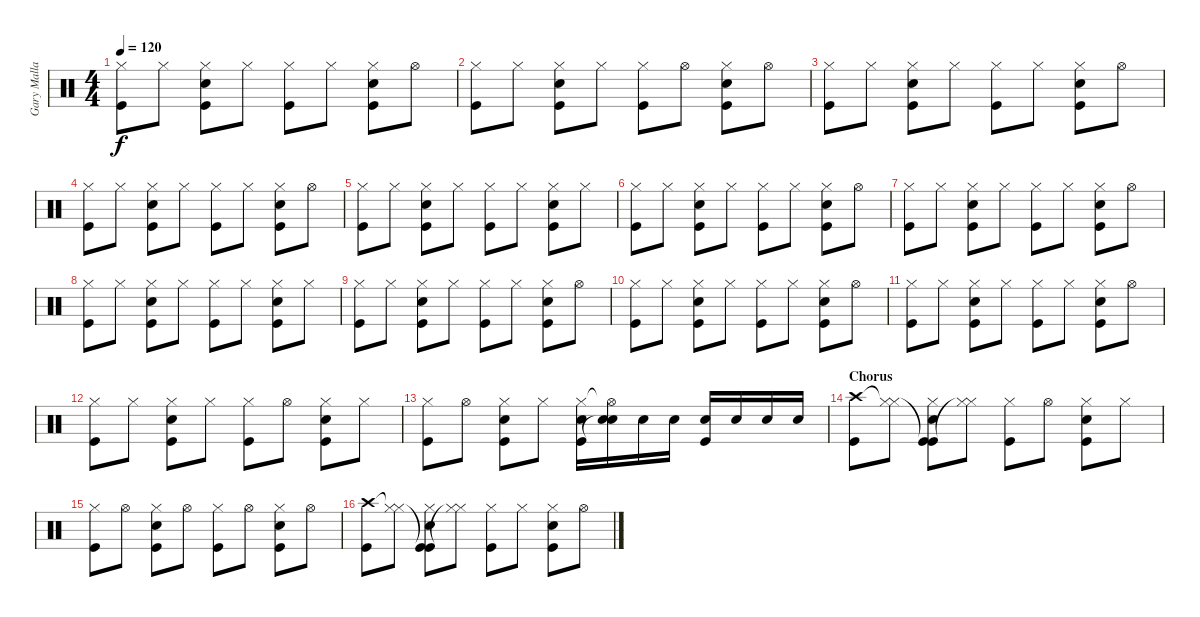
\track ("Gary Mallaber" "Gary Malla") {instrument percussion}
\staff {score}
\articulation defaults
\ts (4 4)
\tempo 120
\clef neutral
\ks c
("Hi-Hat (closed)" "Kick (hit)").8{dy f} "Hi-Hat (closed)".8 ("Hi-Hat (closed)" "Snare (hit) 2" "Kick (hit)").8 "Hi-Hat (closed)".8 ("Hi-Hat (closed)" "Kick (hit)").8 "Hi-Hat (closed)".8 ("Hi-Hat (closed)" "Snare (hit) 2" "Kick (hit)").8 "Hi-Hat (open)".8 |
("Hi-Hat (closed)" "Kick (hit)").8 "Hi-Hat (closed)".8 ("Hi-Hat (closed)" "Snare (hit) 2" "Kick (hit)").8 "Hi-Hat (closed)".8 ("Hi-Hat (closed)" "Kick (hit)").8 "Hi-Hat (open)".8 ("Hi-Hat (closed)" "Snare (hit) 2" "Kick (hit)").8 "Hi-Hat (open)".8 |
("Hi-Hat (closed)" "Kick (hit)").8 "Hi-Hat (closed)".8 ("Hi-Hat (closed)" "Snare (hit) 2" "Kick (hit)").8 "Hi-Hat (closed)".8 ("Hi-Hat (closed)" "Kick (hit)").8 "Hi-Hat (closed)".8 ("Hi-Hat (closed)" "Snare (hit) 2" "Kick (hit)").8 "Hi-Hat (open)".8 |
("Hi-Hat (closed)" "Kick (hit)").8 "Hi-Hat (closed)".8 ("Hi-Hat (closed)" "Snare (hit) 2" "Kick (hit)").8 "Hi-Hat (closed)".8 ("Hi-Hat (closed)" "Kick (hit)").8 "Hi-Hat (closed)".8 ("Hi-Hat (closed)" "Snare (hit) 2" "Kick (hit)").8 "Hi-Hat (open)".8 |
("Hi-Hat (closed)" "Kick (hit)").8 "Hi-Hat (closed)".8 ("Hi-Hat (closed)" "Snare (hit) 2" "Kick (hit)").8 "Hi-Hat (closed)".8 ("Hi-Hat (closed)" "Kick (hit)").8 "Hi-Hat (closed)".8 ("Hi-Hat (closed)" "Snare (hit) 2" "Kick (hit)").8 "Hi-Hat (closed)".8 |
("Hi-Hat (closed)" "Kick (hit)").8 "Hi-Hat (closed)".8 ("Hi-Hat (closed)" "Snare (hit) 2" "Kick (hit)").8 "Hi-Hat (closed)".8 ("Hi-Hat (closed)" "Kick (hit)").8 "Hi-Hat (closed)".8 ("Hi-Hat (closed)" "Snare (hit) 2" "Kick (hit)").8 "Hi-Hat (open)".8 |
("Hi-Hat (closed)" "Kick (hit)").8 "Hi-Hat (closed)".8 ("Hi-Hat (closed)" "Snare (hit) 2" "Kick (hit)").8 "Hi-Hat (closed)".8 ("Hi-Hat (closed)" "Kick (hit)").8 "Hi-Hat (closed)".8 ("Hi-Hat (closed)" "Snare (hit) 2" "Kick (hit)").8 "Hi-Hat (open)".8 |
("Hi-Hat (closed)" "Kick (hit)").8 "Hi-Hat (closed)".8 ("Hi-Hat (closed)" "Snare (hit) 2" "Kick (hit)").8 "Hi-Hat (closed)".8 ("Hi-Hat (closed)" "Kick (hit)").8 "Hi-Hat (closed)".8 ("Hi-Hat (closed)" "Snare (hit) 2" "Kick (hit)").8 "Hi-Hat (closed)".8 |
("Hi-Hat (closed)" "Kick (hit)").8 "Hi-Hat (closed)".8 ("Hi-Hat (closed)" "Snare (hit) 2" "Kick (hit)").8 "Hi-Hat (closed)".8 ("Hi-Hat (closed)" "Kick (hit)").8 "Hi-Hat (closed)".8 ("Hi-Hat (closed)" "Snare (hit) 2" "Kick (hit)").8 "Hi-Hat (open)".8 |
("Hi-Hat (closed)" "Kick (hit)").8 "Hi-Hat (closed)".8 ("Hi-Hat (closed)" "Snare (hit) 2" "Kick (hit)").8 "Hi-Hat (closed)".8 ("Hi-Hat (closed)" "Kick (hit)").8 "Hi-Hat (closed)".8 ("Hi-Hat (closed)" "Snare (hit) 2" "Kick (hit)").8 "Hi-Hat (open)".8 |
("Hi-Hat (closed)" "Kick (hit)").8 "Hi-Hat (closed)".8 ("Hi-Hat (closed)" "Snare (hit) 2" "Kick (hit)").8 "Hi-Hat (closed)".8 ("Hi-Hat (closed)" "Kick (hit)").8 "Hi-Hat (closed)".8 ("Hi-Hat (closed)" "Snare (hit) 2" "Kick (hit)").8 "Hi-Hat (open)".8 |
("Hi-Hat (closed)" "Kick (hit)").8 "Hi-Hat (closed)".8 ("Hi-Hat (closed)" "Snare (hit) 2" "Kick (hit)").8 "Hi-Hat (closed)".8 ("Hi-Hat (closed)" "Kick (hit)").8 "Hi-Hat (open)".8 ("Hi-Hat (closed)" "Snare (hit) 2" "Kick (hit)").8 "Hi-Hat (closed)".8 |
("Hi-Hat (closed)" "Kick (hit)").8 "Hi-Hat (open)".8 ("Hi-Hat (closed)" "Snare (hit) 2" "Kick (hit)").8 "Hi-Hat (closed)".8 ("Hi-Hat (closed)" "Snare (hit) 2" "Kick (hit)").16 ("Hi-Hat (open)"{t} "Snare (hit) 2" "Snare (hit)"{t}).16 "Snare (hit) 2".16 "Snare (hit) 2".16 ("Snare (hit) 2" "Kick (hit)").16 "Snare (hit) 2".16 "Snare (hit) 2".16 "Snare (hit) 2".16 |
\section ("" "Chorus")
("Crash high (hit)" "Kick (hit)").8 ("Hi-Hat (closed)"{t} "Hi-Hat (closed)").8 ("Kick (hit)"{t} "Hi-Hat (closed)" "Snare (hit) 2" "Kick (hit)").8 ("Hi-Hat (closed)"{t} "Hi-Hat (closed)").8 ("Hi-Hat (closed)" "Kick (hit)").8 "Hi-Hat (open)".8 ("Hi-Hat (closed)" "Snare (hit) 2" "Kick (hit)").8 "Hi-Hat (closed)".8 |
("Hi-Hat (closed)" "Kick (hit)").8 "Hi-Hat (open)".8 ("Hi-Hat (closed)" "Snare (hit) 2" "Kick (hit)").8 "Hi-Hat (open)".8 ("Hi-Hat (closed)" "Kick (hit)").8 "Hi-Hat (open)".8 ("Hi-Hat (closed)" "Snare (hit) 2" "Kick (hit)").8 "Hi-Hat (open)".8 |
("Crash high (hit)" "Kick (hit)").8 ("Hi-Hat (closed)"{t} "Hi-Hat (closed)").8 ("Kick (hit)"{t} "Hi-Hat (closed)" "Snare (hit) 2" "Kick (hit)").8 ("Hi-Hat (closed)"{t} "Hi-Hat (closed)").8 ("Hi-Hat (closed)" "Kick (hit)").8 "Hi-Hat (closed)".8 ("Hi-Hat (closed)" "Snare (hit) 2" "Kick (hit)").8 "Hi-Hat (open)".8
